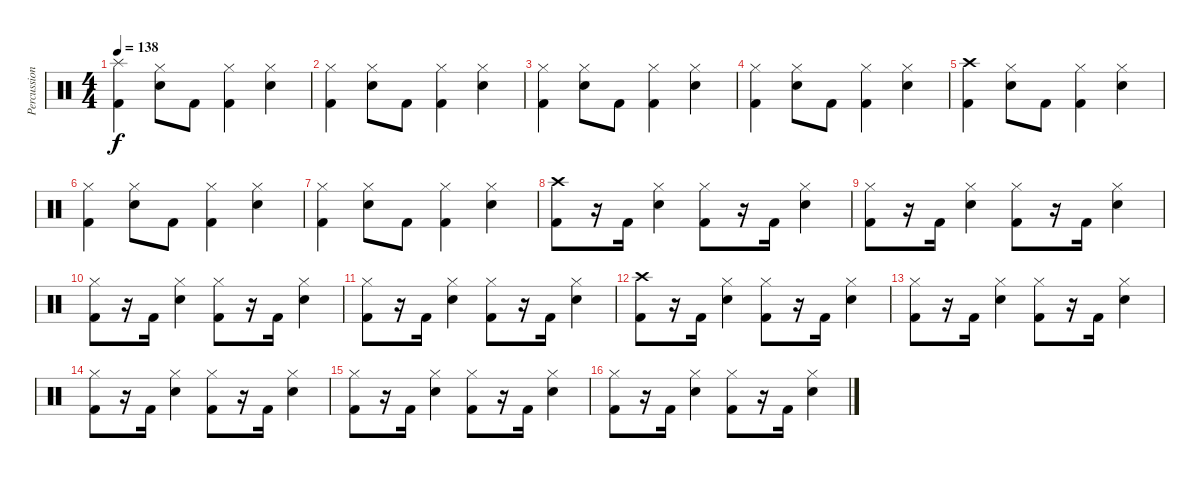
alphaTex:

\track ("Percussions" "Percussion") {instrument percussion}
\staff {score}
\articulation defaults
\ts (4 4)
\tempo 138
\clef neutral
\ks c
("Splash (hit)" "Kick (hit) 2").4{dy f} ("Hi-Hat (closed)" "Snare (hit) 2").8 "Kick (hit) 2".8 ("Hi-Hat (closed)" "Kick (hit) 2").4 ("Hi-Hat (closed)" "Snare (hit) 2").4 |
("Hi-Hat (closed)" "Kick (hit) 2").4 ("Hi-Hat (closed)" "Snare (hit) 2").8 "Kick (hit) 2".8 ("Hi-Hat (closed)" "Kick (hit) 2").4 ("Hi-Hat (closed)" "Snare (hit) 2").4 |
("Hi-Hat (closed)" "Kick (hit) 2").4 ("Hi-Hat (closed)" "Snare (hit) 2").8 "Kick (hit) 2".8 ("Hi-Hat (closed)" "Kick (hit) 2").4 ("Hi-Hat (closed)" "Snare (hit) 2").4 |
("Hi-Hat (closed)" "Kick (hit) 2").4 ("Hi-Hat (closed)" "Snare (hit) 2").8 "Kick (hit) 2".8 ("Hi-Hat (closed)" "Kick (hit) 2").4 ("Hi-Hat (closed)" "Snare (hit) 2").4 |
("Crash high (hit)" "Kick (hit) 2").4 ("Hi-Hat (closed)" "Snare (hit) 2").8 "Kick (hit) 2".8 ("Hi-Hat (closed)" "Kick (hit) 2").4 ("Hi-Hat (closed)" "Snare (hit) 2").4 |
("Hi-Hat (closed)" "Kick (hit) 2").4 ("Hi-Hat (closed)" "Snare (hit) 2").8 "Kick (hit) 2".8 ("Hi-Hat (closed)" "Kick (hit) 2").4 ("Hi-Hat (closed)" "Snare (hit) 2").4 |
("Hi-Hat (closed)" "Kick (hit) 2").4 ("Hi-Hat (closed)" "Snare (hit) 2").8 "Kick (hit) 2".8 ("Hi-Hat (closed)" "Kick (hit) 2").4 ("Hi-Hat (closed)" "Snare (hit) 2").4 |
("Crash high (hit)" "Kick (hit) 2").8 r.16 "Kick (hit) 2".16 ("Hi-Hat (closed)" "Snare (hit) 2").4 ("Hi-Hat (closed)" "Kick (hit) 2").8 r.16 "Kick (hit) 2".16 ("Hi-Hat (closed)" "Snare (hit) 2").4 |
("Hi-Hat (closed)" "Kick (hit) 2").8 r.16 "Kick (hit) 2".16 ("Hi-Hat (closed)" "Snare (hit) 2").4 ("Hi-Hat (closed)" "Kick (hit) 2").8 r.16 "Kick (hit) 2".16 ("Hi-Hat (closed)" "Snare (hit) 2").4 |
("Hi-Hat (closed)" "Kick (hit) 2").8 r.16 "Kick (hit) 2".16 ("Hi-Hat (closed)" "Snare (hit) 2").4 ("Hi-Hat (closed)" "Kick (hit) 2").8 r.16 "Kick (hit) 2".16 ("Hi-Hat (closed)" "Snare (hit) 2").4 |
("Hi-Hat (closed)" "Kick (hit) 2").8 r.16 "Kick (hit) 2".16 ("Hi-Hat (closed)" "Snare (hit) 2").4 ("Hi-Hat (closed)" "Kick (hit) 2").8 r.16 "Kick (hit) 2".16 ("Hi-Hat (closed)" "Snare (hit) 2").4 |
("Crash high (hit)" "Kick (hit) 2").8 r.16 "Kick (hit) 2".16 ("Hi-Hat (closed)" "Snare (hit) 2").4 ("Hi-Hat (closed)" "Kick (hit) 2").8 r.16 "Kick (hit) 2".16 ("Hi-Hat (closed)" "Snare (hit) 2").4 |
("Hi-Hat (closed)" "Kick (hit) 2").8 r.16 "Kick (hit) 2".16 ("Hi-Hat (closed)" "Snare (hit) 2").4 ("Hi-Hat (closed)" "Kick (hit) 2").8 r.16 "Kick (hit) 2".16 ("Hi-Hat (closed)" "Snare (hit) 2").4 |
("Hi-Hat (closed)" "Kick (hit) 2").8 r.16 "Kick (hit) 2".16 ("Hi-Hat (closed)" "Snare (hit) 2").4 ("Hi-Hat (closed)" "Kick (hit) 2").8 r.16 "Kick (hit) 2".16 ("Hi-Hat (closed)" "Snare (hit) 2").4 |
("Hi-Hat (closed)" "Kick (hit) 2").8 r.16 "Kick (hit) 2".16 ("Hi-Hat (closed)" "Snare (hit) 2").4 ("Hi-Hat (closed)" "Kick (hit) 2").8 r.16 "Kick (hit) 2".16 ("Hi-Hat (closed)" "Snare (hit) 2").4 |
("Hi-Hat (closed)" "Kick (hit) 2").8 r.16 "Kick (hit) 2".16 ("Hi-Hat (closed)" "Snare (hit) 2").4 ("Hi-Hat (closed)" "Kick (hit) 2").8 r.16 "Kick (hit) 2".16 ("Hi-Hat (closed)" "Snare (hit) 2").4
